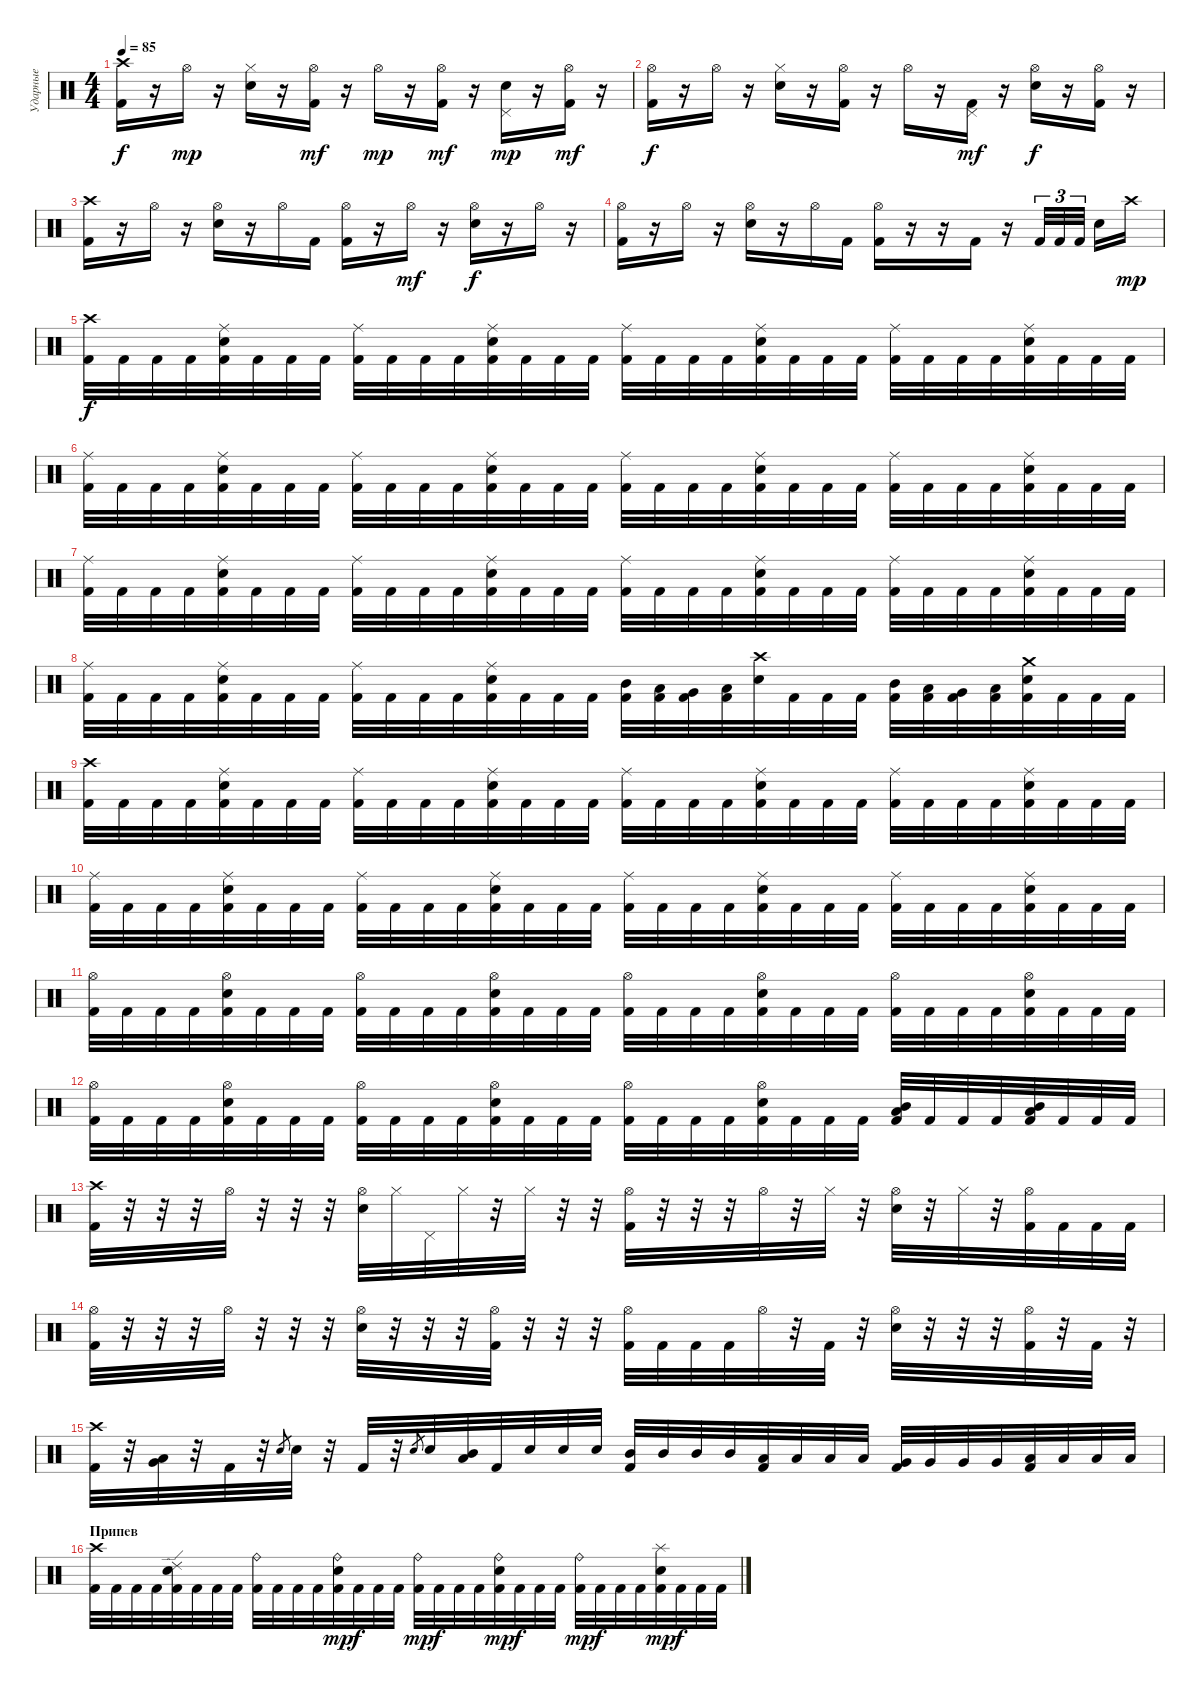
\track ("Ударные" "Ударные") {instrument percussion}
\staff {score}
\articulation defaults
\ts (4 4)
\tempo 85
\clef neutral
\ks c
("Crash high (hit)" "Kick (hit) 2").16{dy f} r.16 "Hi-Hat (open)".16{dy mp} r.16 ("Hi-Hat (closed)" "Snare (hit) 2").16 r.16 ("Hi-Hat (open)" "Kick (hit) 2").16{dy mf} r.16 "Hi-Hat (open)".16{dy mp} r.16 ("Hi-Hat (open)" "Kick (hit) 2").16{dy mf} r.16 ("Pedal Hi-Hat (hit)" "Snare (hit) 2").16{dy mp} r.16 ("Hi-Hat (open)" "Kick (hit) 2").16{dy mf} r.16 |
("Hi-Hat (open)" "Kick (hit) 2").16{dy f} r.16 "Hi-Hat (open)".16 r.16 ("Hi-Hat (closed)" "Snare (hit) 2").16 r.16 ("Hi-Hat (open)" "Kick (hit) 2").16 r.16 "Hi-Hat (open)".16 r.16 ("Pedal Hi-Hat (hit)" "Kick (hit) 2").16{dy mf} r.16 ("Hi-Hat (open)" "Snare (hit) 2").16{dy f} r.16 ("Hi-Hat (open)" "Kick (hit) 2").16 r.16 |
("Crash high (hit)" "Kick (hit) 2").16 r.16 "Hi-Hat (open)".16 r.16 ("Hi-Hat (open)" "Snare (hit) 2").16 r.16 "Hi-Hat (open)".16 "Kick (hit) 2".16 ("Hi-Hat (open)" "Kick (hit) 2").16 r.16 "Hi-Hat (open)".16{dy mf} r.16 ("Hi-Hat (open)" "Snare (hit) 2").16{dy f} r.16 "Hi-Hat (open)".16 r.16 |
("Hi-Hat (open)" "Kick (hit) 2").16 r.16 "Hi-Hat (open)".16 r.16 ("Hi-Hat (open)" "Snare (hit) 2").16 r.16 "Hi-Hat (open)".16 "Kick (hit) 2".16 ("Hi-Hat (open)" "Kick (hit) 2").16 r.16 r.16 "Kick (hit) 2".16 r.16 "Kick (hit) 2".32{tu (3 2)} "Kick (hit) 2".32{tu (3 2)} "Kick (hit) 2".32{tu (3 2)} "Snare (hit) 2".16 "Crash high (hit)".16{dy mp} |
("Crash high (hit)" "Kick (hit) 2").32{dy f} "Kick (hit) 2".32 "Kick (hit) 2".32 "Kick (hit) 2".32 ("Ride (middle)" "Snare (hit) 2" "Kick (hit) 2").32 "Kick (hit) 2".32 "Kick (hit) 2".32 "Kick (hit) 2".32 ("Ride (middle)" "Kick (hit) 2").32 "Kick (hit) 2".32 "Kick (hit) 2".32 "Kick (hit) 2".32 ("Ride (middle)" "Snare (hit) 2" "Kick (hit) 2").32 "Kick (hit) 2".32 "Kick (hit) 2".32 "Kick (hit) 2".32 ("Ride (middle)" "Kick (hit) 2").32 "Kick (hit) 2".32 "Kick (hit) 2".32 "Kick (hit) 2".32 ("Ride (middle)" "Snare (hit) 2" "Kick (hit) 2").32 "Kick (hit) 2".32 "Kick (hit) 2".32 "Kick (hit) 2".32 ("Ride (middle)" "Kick (hit) 2").32 "Kick (hit) 2".32 "Kick (hit) 2".32 "Kick (hit) 2".32 ("Ride (middle)" "Snare (hit) 2" "Kick (hit) 2").32 "Kick (hit) 2".32 "Kick (hit) 2".32 "Kick (hit) 2".32 |
("Ride (middle)" "Kick (hit) 2").32 "Kick (hit) 2".32 "Kick (hit) 2".32 "Kick (hit) 2".32 ("Ride (middle)" "Snare (hit) 2" "Kick (hit) 2").32 "Kick (hit) 2".32 "Kick (hit) 2".32 "Kick (hit) 2".32 ("Ride (middle)" "Kick (hit) 2").32 "Kick (hit) 2".32 "Kick (hit) 2".32 "Kick (hit) 2".32 ("Ride (middle)" "Snare (hit) 2" "Kick (hit) 2").32 "Kick (hit) 2".32 "Kick (hit) 2".32 "Kick (hit) 2".32 ("Ride (middle)" "Kick (hit) 2").32 "Kick (hit) 2".32 "Kick (hit) 2".32 "Kick (hit) 2".32 ("Ride (middle)" "Snare (hit) 2" "Kick (hit) 2").32 "Kick (hit) 2".32 "Kick (hit) 2".32 "Kick (hit) 2".32 ("Ride (middle)" "Kick (hit) 2").32 "Kick (hit) 2".32 "Kick (hit) 2".32 "Kick (hit) 2".32 ("Ride (middle)" "Snare (hit) 2" "Kick (hit) 2").32 "Kick (hit) 2".32 "Kick (hit) 2".32 "Kick (hit) 2".32 |
("Ride (middle)" "Kick (hit) 2").32 "Kick (hit) 2".32 "Kick (hit) 2".32 "Kick (hit) 2".32 ("Ride (middle)" "Snare (hit) 2" "Kick (hit) 2").32 "Kick (hit) 2".32 "Kick (hit) 2".32 "Kick (hit) 2".32 ("Ride (middle)" "Kick (hit) 2").32 "Kick (hit) 2".32 "Kick (hit) 2".32 "Kick (hit) 2".32 ("Ride (middle)" "Snare (hit) 2" "Kick (hit) 2").32 "Kick (hit) 2".32 "Kick (hit) 2".32 "Kick (hit) 2".32 ("Ride (middle)" "Kick (hit) 2").32 "Kick (hit) 2".32 "Kick (hit) 2".32 "Kick (hit) 2".32 ("Ride (middle)" "Snare (hit) 2" "Kick (hit) 2").32 "Kick (hit) 2".32 "Kick (hit) 2".32 "Kick (hit) 2".32 ("Ride (middle)" "Kick (hit) 2").32 "Kick (hit) 2".32 "Kick (hit) 2".32 "Kick (hit) 2".32 ("Ride (middle)" "Snare (hit) 2" "Kick (hit) 2").32 "Kick (hit) 2".32 "Kick (hit) 2".32 "Kick (hit) 2".32 |
("Ride (middle)" "Kick (hit) 2").32 "Kick (hit) 2".32 "Kick (hit) 2".32 "Kick (hit) 2".32 ("Ride (middle)" "Snare (hit) 2" "Kick (hit) 2").32 "Kick (hit) 2".32 "Kick (hit) 2".32 "Kick (hit) 2".32 ("Ride (middle)" "Kick (hit) 2").32 "Kick (hit) 2".32 "Kick (hit) 2".32 "Kick (hit) 2".32 ("Ride (middle)" "Snare (hit) 2" "Kick (hit) 2").32 "Kick (hit) 2".32 "Kick (hit) 2".32 "Kick (hit) 2".32 ("Mid Tom (hit)" "Kick (hit) 2").32 ("Low Tom (hit)" "Kick (hit) 2").32 ("Very Low Tom (hit)" "Kick (hit) 2").32 ("Low Floor Tom (hit)" "Kick (hit) 2").32 ("Crash high (hit)" "Snare (hit) 2").32 "Kick (hit) 2".32 "Kick (hit) 2".32 "Kick (hit) 2".32 ("Mid Tom (hit)" "Kick (hit) 2").32 ("Low Tom (hit)" "Kick (hit) 2").32 ("Very Low Tom (hit)" "Kick (hit) 2").32 ("Low Floor Tom (hit)" "Kick (hit) 2").32 ("Crash medium (hit)" "Snare (hit) 2" "Kick (hit) 2").32 "Kick (hit) 2".32 "Kick (hit) 2".32 "Kick (hit) 2".32 |
("Crash high (hit)" "Kick (hit) 2").32 "Kick (hit) 2".32 "Kick (hit) 2".32 "Kick (hit) 2".32 ("Ride (middle)" "Snare (hit) 2" "Kick (hit) 2").32 "Kick (hit) 2".32 "Kick (hit) 2".32 "Kick (hit) 2".32 ("Ride (middle)" "Kick (hit) 2").32 "Kick (hit) 2".32 "Kick (hit) 2".32 "Kick (hit) 2".32 ("Ride (middle)" "Snare (hit) 2" "Kick (hit) 2").32 "Kick (hit) 2".32 "Kick (hit) 2".32 "Kick (hit) 2".32 ("Ride (middle)" "Kick (hit) 2").32 "Kick (hit) 2".32 "Kick (hit) 2".32 "Kick (hit) 2".32 ("Ride (middle)" "Snare (hit) 2" "Kick (hit) 2").32 "Kick (hit) 2".32 "Kick (hit) 2".32 "Kick (hit) 2".32 ("Ride (middle)" "Kick (hit) 2").32 "Kick (hit) 2".32 "Kick (hit) 2".32 "Kick (hit) 2".32 ("Ride (middle)" "Snare (hit) 2" "Kick (hit) 2").32 "Kick (hit) 2".32 "Kick (hit) 2".32 "Kick (hit) 2".32 |
("Ride (middle)" "Kick (hit) 2").32 "Kick (hit) 2".32 "Kick (hit) 2".32 "Kick (hit) 2".32 ("Ride (middle)" "Snare (hit) 2" "Kick (hit) 2").32 "Kick (hit) 2".32 "Kick (hit) 2".32 "Kick (hit) 2".32 ("Ride (middle)" "Kick (hit) 2").32 "Kick (hit) 2".32 "Kick (hit) 2".32 "Kick (hit) 2".32 ("Ride (middle)" "Snare (hit) 2" "Kick (hit) 2").32 "Kick (hit) 2".32 "Kick (hit) 2".32 "Kick (hit) 2".32 ("Ride (middle)" "Kick (hit) 2").32 "Kick (hit) 2".32 "Kick (hit) 2".32 "Kick (hit) 2".32 ("Ride (middle)" "Snare (hit) 2" "Kick (hit) 2").32 "Kick (hit) 2".32 "Kick (hit) 2".32 "Kick (hit) 2".32 ("Ride (middle)" "Kick (hit) 2").32 "Kick (hit) 2".32 "Kick (hit) 2".32 "Kick (hit) 2".32 ("Ride (middle)" "Snare (hit) 2" "Kick (hit) 2").32 "Kick (hit) 2".32 "Kick (hit) 2".32 "Kick (hit) 2".32 |
("Hi-Hat (open)" "Kick (hit) 2").32 "Kick (hit) 2".32 "Kick (hit) 2".32 "Kick (hit) 2".32 ("Hi-Hat (open)" "Snare (hit) 2" "Kick (hit) 2").32 "Kick (hit) 2".32 "Kick (hit) 2".32 "Kick (hit) 2".32 ("Hi-Hat (open)" "Kick (hit) 2").32 "Kick (hit) 2".32 "Kick (hit) 2".32 "Kick (hit) 2".32 ("Hi-Hat (open)" "Snare (hit) 2" "Kick (hit) 2").32 "Kick (hit) 2".32 "Kick (hit) 2".32 "Kick (hit) 2".32 ("Hi-Hat (open)" "Kick (hit) 2").32 "Kick (hit) 2".32 "Kick (hit) 2".32 "Kick (hit) 2".32 ("Hi-Hat (open)" "Snare (hit) 2" "Kick (hit) 2").32 "Kick (hit) 2".32 "Kick (hit) 2".32 "Kick (hit) 2".32 ("Hi-Hat (open)" "Kick (hit) 2").32 "Kick (hit) 2".32 "Kick (hit) 2".32 "Kick (hit) 2".32 ("Hi-Hat (open)" "Snare (hit) 2" "Kick (hit) 2").32 "Kick (hit) 2".32 "Kick (hit) 2".32 "Kick (hit) 2".32 |
("Hi-Hat (open)" "Kick (hit) 2").32 "Kick (hit) 2".32 "Kick (hit) 2".32 "Kick (hit) 2".32 ("Hi-Hat (open)" "Snare (hit) 2" "Kick (hit) 2").32 "Kick (hit) 2".32 "Kick (hit) 2".32 "Kick (hit) 2".32 ("Hi-Hat (open)" "Kick (hit) 2").32 "Kick (hit) 2".32 "Kick (hit) 2".32 "Kick (hit) 2".32 ("Hi-Hat (open)" "Snare (hit) 2" "Kick (hit) 2").32 "Kick (hit) 2".32 "Kick (hit) 2".32 "Kick (hit) 2".32 ("Hi-Hat (open)" "Kick (hit) 2").32 "Kick (hit) 2".32 "Kick (hit) 2".32 "Kick (hit) 2".32 ("Hi-Hat (open)" "Snare (hit) 2" "Kick (hit) 2").32 "Kick (hit) 2".32 "Kick (hit) 2".32 "Kick (hit) 2".32 ("Mid Tom (hit)" "Low Tom (hit)" "Kick (hit) 2").32 "Kick (hit) 2".32 "Kick (hit) 2".32 "Kick (hit) 2".32 ("Mid Tom (hit)" "Low Tom (hit)" "Kick (hit) 2").32 "Kick (hit) 2".32 "Kick (hit) 2".32 "Kick (hit) 2".32 |
("Crash high (hit)" "Kick (hit) 2").32 r.32 r.32 r.32 "Hi-Hat (open)".32 r.32 r.32 r.32 ("Hi-Hat (open)" "Snare (hit) 2").32 "Hi-Hat (closed)".32 "Pedal Hi-Hat (hit)".32 "Hi-Hat (closed)".32 r.32 "Hi-Hat (closed)".32 r.32 r.32 ("Hi-Hat (open)" "Kick (hit) 2").32 r.32 r.32 r.32 "Hi-Hat (open)".32 r.32 "Hi-Hat (closed)".32 r.32 ("Hi-Hat (open)" "Snare (hit) 2").32 r.32 "Hi-Hat (closed)".32 r.32 ("Hi-Hat (open)" "Kick (hit) 2").32 "Kick (hit) 2".32 "Kick (hit) 2".32 "Kick (hit) 2".32 |
("Hi-Hat (open)" "Kick (hit) 2").32 r.32 r.32 r.32 "Hi-Hat (open)".32 r.32 r.32 r.32 ("Hi-Hat (open)" "Snare (hit) 2").32 r.32 r.32 r.32 ("Hi-Hat (open)" "Kick (hit) 2").32 r.32 r.32 r.32 ("Hi-Hat (open)" "Kick (hit) 2").32 "Kick (hit) 2".32 "Kick (hit) 2".32 "Kick (hit) 2".32 "Hi-Hat (open)".32 r.32 "Kick (hit) 2".32 r.32 ("Hi-Hat (open)" "Snare (hit) 2").32 r.32 r.32 r.32 ("Hi-Hat (open)" "Kick (hit) 2").32 r.32 "Kick (hit) 2".32 r.32 |
("Crash high (hit)" "Kick (hit) 2").32 r.32 ("Very Low Tom (hit)" "Low Floor Tom (hit)").32 r.32 "Kick (hit) 2".32 r.32 "Snare (hit) 2".8{gr} "Snare (hit) 2".32 r.32 "Kick (hit) 2".32 r.32 "Snare (hit) 2".8{gr} "Snare (hit) 2".32 ("Mid Tom (hit)" "Low Tom (hit)").32 "Kick (hit) 2".32 "Snare (hit) 2".32 "Snare (hit) 2".32 "Snare (hit) 2".32 ("Mid Tom (hit)" "Kick (hit) 2").32 "Mid Tom (hit)".32 "Mid Tom (hit)".32 "Mid Tom (hit)".32 ("Low Tom (hit)" "Kick (hit) 2").32 "Low Tom (hit)".32 "Low Tom (hit)".32 "Low Tom (hit)".32 ("Very Low Tom (hit)" "Kick (hit) 2").32 "Very Low Tom (hit)".32 "Very Low Tom (hit)".32 "Very Low Tom (hit)".32 ("Low Floor Tom (hit)" "Kick (hit) 2").32 "Low Floor Tom (hit)".32 "Low Floor Tom (hit)".32 "Low Floor Tom (hit)".32 |
\section ("" "Припев")
("Crash high (hit)" "Kick (hit) 2").32 "Kick (hit) 2".32 "Kick (hit) 2".32 "Kick (hit) 2".32 ("Ride (edge) 2" "Snare (hit) 2" "Kick (hit) 2").32 "Kick (hit) 2".32 "Kick (hit) 2".32 "Kick (hit) 2".32 ("Ride (bell)" "Kick (hit) 2").32 "Kick (hit) 2".32 "Kick (hit) 2".32 "Kick (hit) 2".32 ("Ride (bell)" "Snare (hit) 2" "Kick (hit) 2").32{dy mp} "Kick (hit) 2".32{dy f} "Kick (hit) 2".32 "Kick (hit) 2".32 ("Ride (bell)" "Kick (hit) 2").32{dy mp} "Kick (hit) 2".32{dy f} "Kick (hit) 2".32 "Kick (hit) 2".32 ("Ride (bell)" "Snare (hit) 2" "Kick (hit) 2").32{dy mp} "Kick (hit) 2".32{dy f} "Kick (hit) 2".32 "Kick (hit) 2".32 ("Ride (bell)" "Kick (hit) 2").32{dy mp} "Kick (hit) 2".32{dy f} "Kick (hit) 2".32 "Kick (hit) 2".32 ("Splash (hit)" "Snare (hit) 2" "Kick (hit) 2").32{dy mp} "Kick (hit) 2".32{dy f} "Kick (hit) 2".32 "Kick (hit) 2".32
